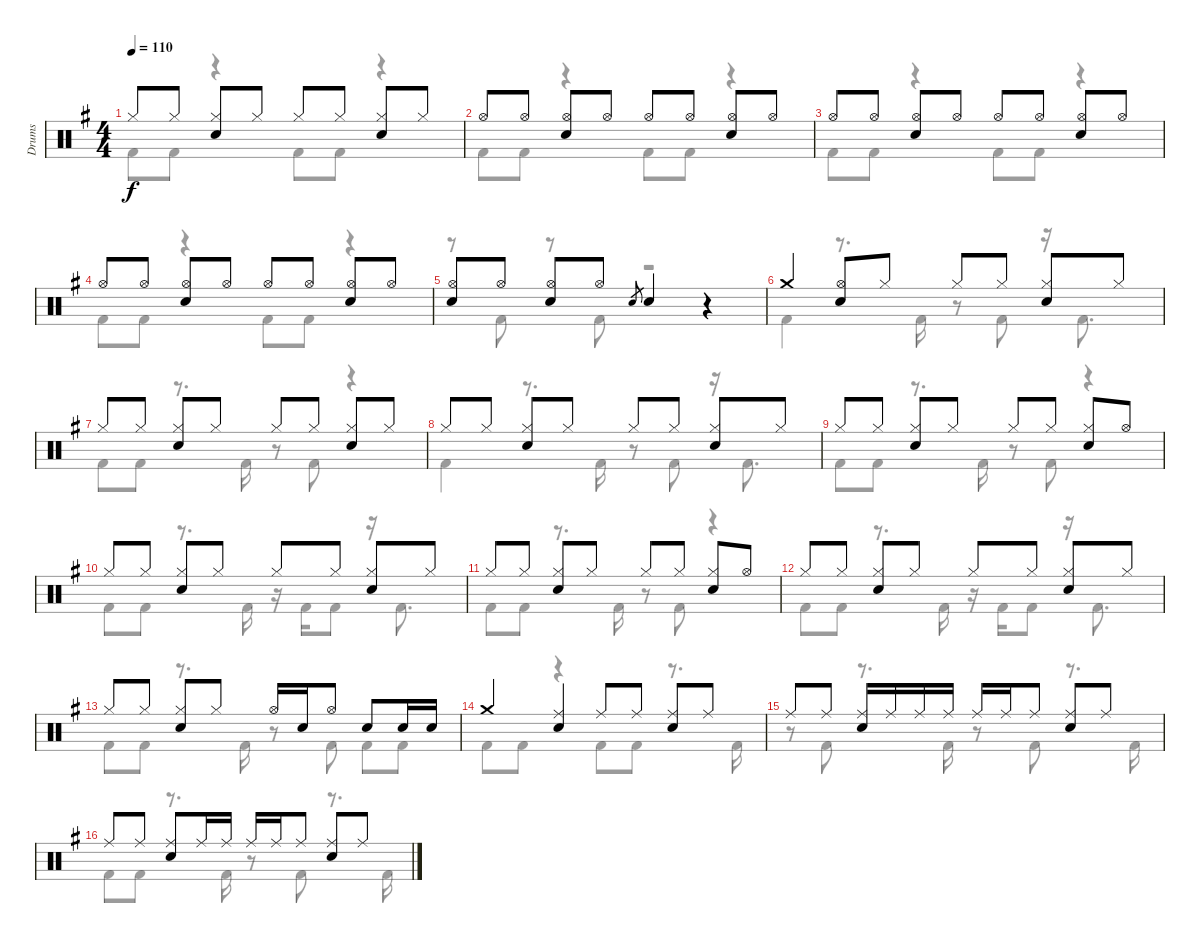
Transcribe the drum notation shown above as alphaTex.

\track ("Drums" "Drums") {instrument percussion}
\staff {score}
\articulation defaults
\voice
\ts (4 4)
\tempo 110
\clef neutral
\ks g "Hi-Hat (closed)".8{dy f} "Hi-Hat (closed)".8
("Hi-Hat (closed)" "Snare (hit) 2").8 "Hi-Hat (closed)".8 "Hi-Hat (closed)".8 "Hi-Hat (closed)".8 ("Hi-Hat (closed)" "Snare (hit) 2").8 "Hi-Hat (closed)".8 |
"Hi-Hat (open)".8 "Hi-Hat (open)".8 ("Hi-Hat (open)" "Snare (hit) 2").8 "Hi-Hat (open)".8 "Hi-Hat (open)".8 "Hi-Hat (open)".8 ("Hi-Hat (open)" "Snare (hit) 2").8 "Hi-Hat (open)".8 |
"Hi-Hat (open)".8 "Hi-Hat (open)".8 ("Hi-Hat (open)" "Snare (hit) 2").8 "Hi-Hat (open)".8 "Hi-Hat (open)".8 "Hi-Hat (open)".8 ("Hi-Hat (open)" "Snare (hit) 2").8 "Hi-Hat (open)".8 |
"Hi-Hat (open)".8 "Hi-Hat (open)".8 ("Hi-Hat (open)" "Snare (hit) 2").8 "Hi-Hat (open)".8 "Hi-Hat (open)".8 "Hi-Hat (open)".8 ("Hi-Hat (open)" "Snare (hit) 2").8 "Hi-Hat (open)".8 |
("Hi-Hat (open)" "Snare (hit) 2").8 "Hi-Hat (open)".8 ("Hi-Hat (open)" "Snare (hit) 2").8 "Hi-Hat (open)".8 "Snare (hit) 2".8{gr} "Snare (hit) 2".4 r.4 |
"Crash medium (hit)".4 ("Hi-Hat (open)" "Snare (hit) 2").8 "Hi-Hat (closed)".8 "Hi-Hat (closed)".8 "Hi-Hat (closed)".8 ("Hi-Hat (closed)" "Snare (hit) 2").8 "Hi-Hat (closed)".8 |
"Hi-Hat (closed)".8 "Hi-Hat (closed)".8 ("Hi-Hat (closed)" "Snare (hit) 2").8 "Hi-Hat (closed)".8 "Hi-Hat (closed)".8 "Hi-Hat (closed)".8 ("Hi-Hat (closed)" "Snare (hit) 2").8 "Hi-Hat (closed)".8 |
"Hi-Hat (closed)".8 "Hi-Hat (closed)".8 ("Hi-Hat (closed)" "Snare (hit) 2").8 "Hi-Hat (closed)".8 "Hi-Hat (closed)".8 "Hi-Hat (closed)".8 ("Hi-Hat (closed)" "Snare (hit) 2").8 "Hi-Hat (closed)".8 |
"Hi-Hat (closed)".8 "Hi-Hat (closed)".8 ("Hi-Hat (closed)" "Snare (hit) 2").8 "Hi-Hat (closed)".8 "Hi-Hat (closed)".8 "Hi-Hat (closed)".8 ("Hi-Hat (closed)" "Snare (hit) 2").8 "Hi-Hat (open)".8 |
"Hi-Hat (closed)".8 "Hi-Hat (closed)".8 ("Hi-Hat (closed)" "Snare (hit) 2").8 "Hi-Hat (closed)".8 "Hi-Hat (closed)".8 "Hi-Hat (closed)".8 ("Hi-Hat (closed)" "Snare (hit) 2").8 "Hi-Hat (closed)".8 |
"Hi-Hat (closed)".8 "Hi-Hat (closed)".8 ("Hi-Hat (closed)" "Snare (hit) 2").8 "Hi-Hat (closed)".8 "Hi-Hat (closed)".8 "Hi-Hat (closed)".8 ("Hi-Hat (closed)" "Snare (hit) 2").8 "Hi-Hat (open)".8 |
"Hi-Hat (closed)".8 "Hi-Hat (closed)".8 ("Hi-Hat (closed)" "Snare (hit) 2").8 "Hi-Hat (closed)".8 "Hi-Hat (closed)".8 "Hi-Hat (closed)".8 ("Hi-Hat (closed)" "Snare (hit) 2").8 "Hi-Hat (closed)".8 |
"Hi-Hat (closed)".8 "Hi-Hat (closed)".8 ("Hi-Hat (closed)" "Snare (hit) 2").8 "Hi-Hat (closed)".8 "Hi-Hat (open)".16 "Snare (hit) 2".16 "Hi-Hat (open)".8 "Snare (hit) 2".8 "Snare (hit) 2".16 "Snare (hit) 2".16 |
"Crash medium (hit)".4 ("Ride (middle)" "Snare (hit) 2").4 "Ride (middle)".8 "Ride (middle)".8 ("Ride (middle)" "Snare (hit) 2").8 "Ride (middle)".8 |
"Ride (middle)".8 "Ride (middle)".8 ("Ride (middle)" "Snare (hit) 2").16 "Ride (middle)".16 "Ride (middle)".16 "Ride (middle)".16 "Ride (middle)".16 "Ride (middle)".16 "Ride (middle)".8 ("Ride (middle)" "Snare (hit) 2").8 "Ride (middle)".8 |
"Ride (middle)".8 "Ride (middle)".8 ("Ride (middle)" "Snare (hit) 2").8 "Ride (middle)".16 "Ride (middle)".16 "Ride (middle)".16 "Ride (middle)".16 "Ride (middle)".8 ("Ride (middle)" "Snare (hit) 2").8 "Ride (middle)".8
\voice
\clef neutral
\ottava regular
\simile none
\ks g "Kick (hit) 2".8{dy f} "Kick (hit) 2".8
r.4 "Kick (hit) 2".8 "Kick (hit) 2".8 r.4 |
"Kick (hit) 2".8 "Kick (hit) 2".8 r.4 "Kick (hit) 2".8 "Kick (hit) 2".8 r.4 |
"Kick (hit) 2".8 "Kick (hit) 2".8 r.4 "Kick (hit) 2".8 "Kick (hit) 2".8 r.4 |
"Kick (hit) 2".8 "Kick (hit) 2".8 r.4 "Kick (hit) 2".8 "Kick (hit) 2".8 r.4 |
r.8 "Kick (hit) 2".8 r.8 "Kick (hit) 2".8 r.2 |
"Kick (hit) 2".4 r.8{d} "Kick (hit) 2".16 r.8 "Kick (hit) 2".8 r.16 "Kick (hit) 2".8{d} |
"Kick (hit) 2".8 "Kick (hit) 2".8 r.8{d} "Kick (hit) 2".16 r.8 "Kick (hit) 2".8 r.4 |
"Kick (hit) 2".4 r.8{d} "Kick (hit) 2".16 r.8 "Kick (hit) 2".8 r.16 "Kick (hit) 2".8{d} |
"Kick (hit) 2".8 "Kick (hit) 2".8 r.8{d} "Kick (hit) 2".16 r.8 "Kick (hit) 2".8 r.4 |
"Kick (hit) 2".8 "Kick (hit) 2".8 r.8{d} "Kick (hit) 2".16 r.16 "Kick (hit) 2".16 "Kick (hit) 2".8 r.16 "Kick (hit) 2".8{d} |
"Kick (hit) 2".8 "Kick (hit) 2".8 r.8{d} "Kick (hit) 2".16 r.8 "Kick (hit) 2".8 r.4 |
"Kick (hit) 2".8 "Kick (hit) 2".8 r.8{d} "Kick (hit) 2".16 r.16 "Kick (hit) 2".16 "Kick (hit) 2".8 r.16 "Kick (hit) 2".8{d} |
"Kick (hit) 2".8 "Kick (hit) 2".8 r.8{d} "Kick (hit) 2".16 r.8 "Kick (hit) 2".8 "Kick (hit) 2".8 "Kick (hit) 2".8 |
"Kick (hit) 2".8 "Kick (hit) 2".8 r.4 "Kick (hit) 2".8 "Kick (hit) 2".8 r.8{d} "Kick (hit) 2".16 |
r.8 "Kick (hit) 2".8 r.8{d} "Kick (hit) 2".16 r.8 "Kick (hit) 2".8 r.8{d} "Kick (hit) 2".16 |
"Kick (hit) 2".8 "Kick (hit) 2".8 r.8{d} "Kick (hit) 2".16 r.8 "Kick (hit) 2".8 r.8{d} "Kick (hit) 2".16
